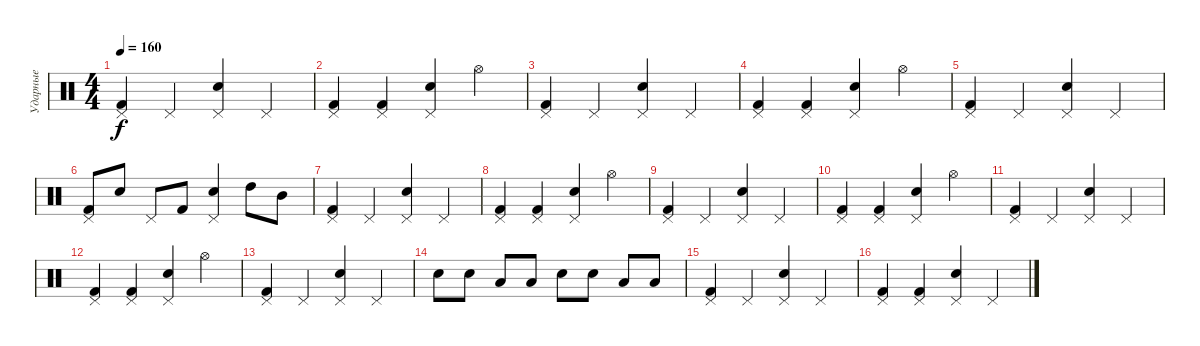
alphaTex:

\track ("Ударные" "Ударные") {instrument percussion}
\staff {score}
\articulation defaults
\ts (4 4)
\tempo 160
\clef neutral
\ks c
("Pedal Hi-Hat (hit)" "Kick (hit) 2").4{dy f} "Pedal Hi-Hat (hit)".4 ("Snare (hit) 2" "Pedal Hi-Hat (hit)").4 "Pedal Hi-Hat (hit)".4 |
("Pedal Hi-Hat (hit)" "Kick (hit) 2").4 ("Pedal Hi-Hat (hit)" "Kick (hit) 2").4 ("Snare (hit) 2" "Pedal Hi-Hat (hit)").4 "Hi-Hat (open)".4 |
("Pedal Hi-Hat (hit)" "Kick (hit) 2").4 "Pedal Hi-Hat (hit)".4 ("Snare (hit) 2" "Pedal Hi-Hat (hit)").4 "Pedal Hi-Hat (hit)".4 |
("Pedal Hi-Hat (hit)" "Kick (hit) 2").4 ("Pedal Hi-Hat (hit)" "Kick (hit) 2").4 ("Snare (hit) 2" "Pedal Hi-Hat (hit)").4 "Hi-Hat (open)".4 |
("Pedal Hi-Hat (hit)" "Kick (hit) 2").4 "Pedal Hi-Hat (hit)".4 ("Snare (hit) 2" "Pedal Hi-Hat (hit)").4 "Pedal Hi-Hat (hit)".4 |
("Pedal Hi-Hat (hit)" "Kick (hit) 2").8 "Snare (hit) 2".8 "Pedal Hi-Hat (hit)".8 "Kick (hit) 2".8 ("Snare (hit) 2" "Pedal Hi-Hat (hit)").4 "High Tom (hit)".8 "Mid Tom (hit)".8 |
("Pedal Hi-Hat (hit)" "Kick (hit) 2").4 "Pedal Hi-Hat (hit)".4 ("Snare (hit) 2" "Pedal Hi-Hat (hit)").4 "Pedal Hi-Hat (hit)".4 |
("Pedal Hi-Hat (hit)" "Kick (hit) 2").4 ("Pedal Hi-Hat (hit)" "Kick (hit) 2").4 ("Snare (hit) 2" "Pedal Hi-Hat (hit)").4 "Hi-Hat (open)".4 |
("Pedal Hi-Hat (hit)" "Kick (hit) 2").4 "Pedal Hi-Hat (hit)".4 ("Snare (hit) 2" "Pedal Hi-Hat (hit)").4 "Pedal Hi-Hat (hit)".4 |
("Pedal Hi-Hat (hit)" "Kick (hit) 2").4 ("Pedal Hi-Hat (hit)" "Kick (hit) 2").4 ("Snare (hit) 2" "Pedal Hi-Hat (hit)").4 "Hi-Hat (open)".4 |
("Pedal Hi-Hat (hit)" "Kick (hit) 2").4 "Pedal Hi-Hat (hit)".4 ("Snare (hit) 2" "Pedal Hi-Hat (hit)").4 "Pedal Hi-Hat (hit)".4 |
("Pedal Hi-Hat (hit)" "Kick (hit) 2").4 ("Pedal Hi-Hat (hit)" "Kick (hit) 2").4 ("Snare (hit) 2" "Pedal Hi-Hat (hit)").4 "Hi-Hat (open)".4 |
("Pedal Hi-Hat (hit)" "Kick (hit) 2").4 "Pedal Hi-Hat (hit)".4 ("Snare (hit) 2" "Pedal Hi-Hat (hit)").4 "Pedal Hi-Hat (hit)".4 |
"Snare (hit) 2".8 "Snare (hit) 2".8 "Low Tom (hit)".8 "Low Tom (hit)".8 "Snare (hit) 2".8 "Snare (hit) 2".8 "Low Tom (hit)".8 "Low Tom (hit)".8 |
("Pedal Hi-Hat (hit)" "Kick (hit) 2").4 "Pedal Hi-Hat (hit)".4 ("Snare (hit) 2" "Pedal Hi-Hat (hit)").4 "Pedal Hi-Hat (hit)".4 |
("Pedal Hi-Hat (hit)" "Kick (hit) 2").4 ("Pedal Hi-Hat (hit)" "Kick (hit) 2").4 ("Snare (hit) 2" "Pedal Hi-Hat (hit)").4 "Pedal Hi-Hat (hit)".4
